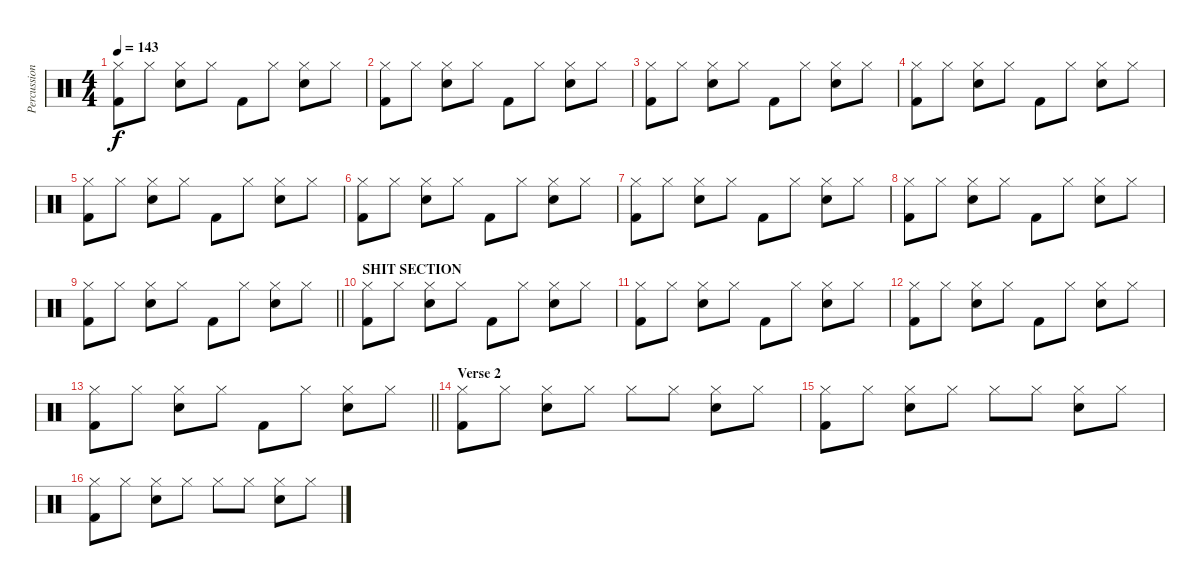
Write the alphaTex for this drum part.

\track ("Percussion" "Percussion") {instrument percussion}
\staff {score}
\articulation defaults
\ts (4 4)
\tempo 143
\clef neutral
\ks c
("Hi-Hat (closed)" "Kick (hit) 2").8{dy f} "Hi-Hat (closed)".8 ("Hi-Hat (closed)" "Electric Snare (hit)").8 "Hi-Hat (closed)".8 "Kick (hit) 2".8 "Hi-Hat (closed)".8 ("Hi-Hat (closed)" "Electric Snare (hit)").8 "Hi-Hat (closed)".8 |
("Hi-Hat (closed)" "Kick (hit) 2").8 "Hi-Hat (closed)".8 ("Hi-Hat (closed)" "Electric Snare (hit)").8 "Hi-Hat (closed)".8 "Kick (hit) 2".8 "Hi-Hat (closed)".8 ("Hi-Hat (closed)" "Electric Snare (hit)").8 "Hi-Hat (closed)".8 |
("Hi-Hat (closed)" "Kick (hit) 2").8 "Hi-Hat (closed)".8 ("Hi-Hat (closed)" "Electric Snare (hit)").8 "Hi-Hat (closed)".8 "Kick (hit) 2".8 "Hi-Hat (closed)".8 ("Hi-Hat (closed)" "Electric Snare (hit)").8 "Hi-Hat (closed)".8 |
("Hi-Hat (closed)" "Kick (hit) 2").8 "Hi-Hat (closed)".8 ("Hi-Hat (closed)" "Electric Snare (hit)").8 "Hi-Hat (closed)".8 "Kick (hit) 2".8 "Hi-Hat (closed)".8 ("Hi-Hat (closed)" "Electric Snare (hit)").8 "Hi-Hat (closed)".8 |
("Hi-Hat (closed)" "Kick (hit) 2").8 "Hi-Hat (closed)".8 ("Hi-Hat (closed)" "Electric Snare (hit)").8 "Hi-Hat (closed)".8 "Kick (hit) 2".8 "Hi-Hat (closed)".8 ("Hi-Hat (closed)" "Electric Snare (hit)").8 "Hi-Hat (closed)".8 |
("Hi-Hat (closed)" "Kick (hit) 2").8 "Hi-Hat (closed)".8 ("Hi-Hat (closed)" "Electric Snare (hit)").8 "Hi-Hat (closed)".8 "Kick (hit) 2".8 "Hi-Hat (closed)".8 ("Hi-Hat (closed)" "Electric Snare (hit)").8 "Hi-Hat (closed)".8 |
("Hi-Hat (closed)" "Kick (hit) 2").8 "Hi-Hat (closed)".8 ("Hi-Hat (closed)" "Electric Snare (hit)").8 "Hi-Hat (closed)".8 "Kick (hit) 2".8 "Hi-Hat (closed)".8 ("Hi-Hat (closed)" "Electric Snare (hit)").8 "Hi-Hat (closed)".8 |
("Hi-Hat (closed)" "Kick (hit) 2").8 "Hi-Hat (closed)".8 ("Hi-Hat (closed)" "Electric Snare (hit)").8 "Hi-Hat (closed)".8 "Kick (hit) 2".8 "Hi-Hat (closed)".8 ("Hi-Hat (closed)" "Electric Snare (hit)").8 "Hi-Hat (closed)".8 |
\barLineRight lightlight
("Hi-Hat (closed)" "Kick (hit) 2").8 "Hi-Hat (closed)".8 ("Hi-Hat (closed)" "Electric Snare (hit)").8 "Hi-Hat (closed)".8 "Kick (hit) 2".8 "Hi-Hat (closed)".8 ("Hi-Hat (closed)" "Electric Snare (hit)").8 "Hi-Hat (closed)".8 |
\section ("" "SHIT SECTION")
("Hi-Hat (closed)" "Kick (hit) 2").8 "Hi-Hat (closed)".8 ("Hi-Hat (closed)" "Electric Snare (hit)").8 "Hi-Hat (closed)".8 "Kick (hit) 2".8 "Hi-Hat (closed)".8 ("Hi-Hat (closed)" "Electric Snare (hit)").8 "Hi-Hat (closed)".8 |
("Hi-Hat (closed)" "Kick (hit) 2").8 "Hi-Hat (closed)".8 ("Hi-Hat (closed)" "Electric Snare (hit)").8 "Hi-Hat (closed)".8 "Kick (hit) 2".8 "Hi-Hat (closed)".8 ("Hi-Hat (closed)" "Electric Snare (hit)").8 "Hi-Hat (closed)".8 |
("Hi-Hat (closed)" "Kick (hit) 2").8 "Hi-Hat (closed)".8 ("Hi-Hat (closed)" "Electric Snare (hit)").8 "Hi-Hat (closed)".8 "Kick (hit) 2".8 "Hi-Hat (closed)".8 ("Hi-Hat (closed)" "Electric Snare (hit)").8 "Hi-Hat (closed)".8 |
\barLineRight lightlight
("Hi-Hat (closed)" "Kick (hit) 2").8 "Hi-Hat (closed)".8 ("Hi-Hat (closed)" "Electric Snare (hit)").8 "Hi-Hat (closed)".8 "Kick (hit) 2".8 "Hi-Hat (closed)".8 ("Hi-Hat (closed)" "Electric Snare (hit)").8 "Hi-Hat (closed)".8 |
\section ("" "Verse 2")
("Hi-Hat (closed)" "Kick (hit) 2").8 "Hi-Hat (closed)".8 ("Hi-Hat (closed)" "Electric Snare (hit)").8 "Hi-Hat (closed)".8 "Hi-Hat (closed)".8 "Hi-Hat (closed)".8 ("Hi-Hat (closed)" "Electric Snare (hit)").8 "Hi-Hat (closed)".8 |
("Hi-Hat (closed)" "Kick (hit) 2").8 "Hi-Hat (closed)".8 ("Hi-Hat (closed)" "Electric Snare (hit)").8 "Hi-Hat (closed)".8 "Hi-Hat (closed)".8 "Hi-Hat (closed)".8 ("Hi-Hat (closed)" "Electric Snare (hit)").8 "Hi-Hat (closed)".8 |
("Hi-Hat (closed)" "Kick (hit) 2").8 "Hi-Hat (closed)".8 ("Hi-Hat (closed)" "Electric Snare (hit)").8 "Hi-Hat (closed)".8 "Hi-Hat (closed)".8 "Hi-Hat (closed)".8 ("Hi-Hat (closed)" "Electric Snare (hit)").8 "Hi-Hat (closed)".8
